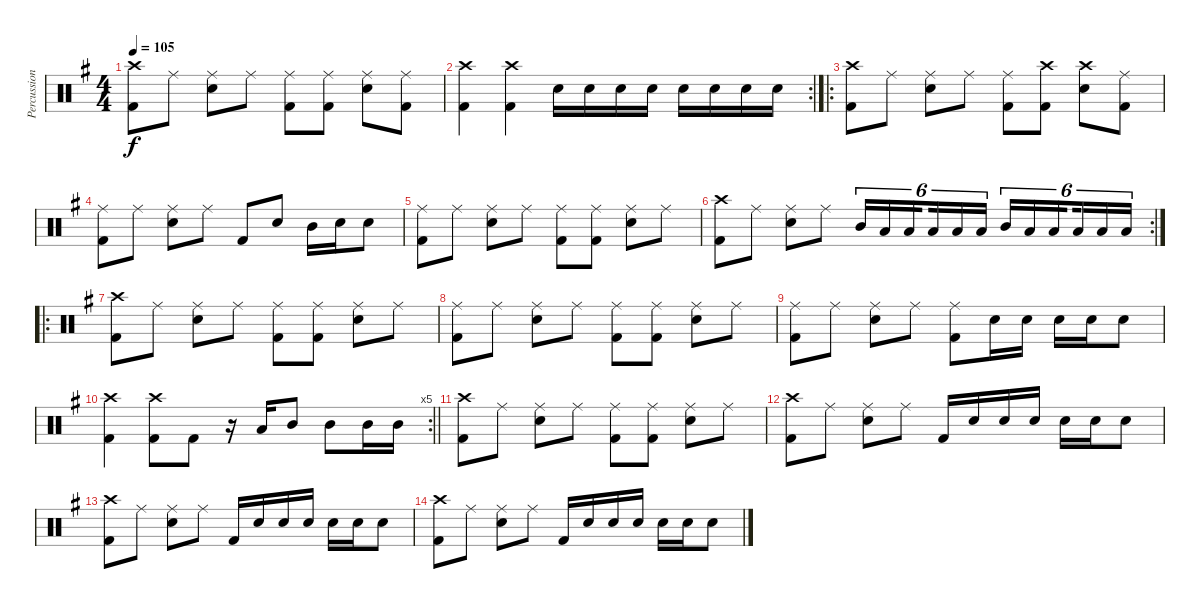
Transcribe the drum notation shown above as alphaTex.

\track ("Percussion" "Percussion") {instrument percussion}
\staff {score}
\articulation defaults
\ts (4 4)
\tempo 105
\clef neutral
\ks g
("Crash high (hit)" "Kick (hit) 2").8{dy f} "Ride (middle)".8 ("Ride (middle)" "Snare (hit) 2").8 "Ride (middle)".8 ("Ride (middle)" "Kick (hit) 2").8 ("Ride (middle)" "Kick (hit) 2").8 ("Ride (middle)" "Snare (hit) 2").8 ("Ride (middle)" "Kick (hit) 2").8 |
\rc 2
("Crash high (hit)" "Kick (hit) 2").4 ("Crash high (hit)" "Kick (hit) 2").4 "Snare (hit) 2".16 "Snare (hit) 2".16 "Snare (hit) 2".16 "Snare (hit) 2".16 "Snare (hit) 2".16 "Snare (hit) 2".16 "Snare (hit) 2".16 "Snare (hit) 2".16 |
\ro
("Crash high (hit)" "Kick (hit) 2").8 "Ride (middle)".8 ("Ride (middle)" "Snare (hit) 2").8 "Ride (middle)".8 ("Ride (middle)" "Kick (hit) 2").8 ("Crash high (hit)" "Kick (hit) 2").8 ("Crash high (hit)" "Snare (hit) 2").8 ("Ride (middle)" "Kick (hit) 2").8 |
("Ride (middle)" "Kick (hit) 2").8 "Ride (middle)".8 ("Ride (middle)" "Snare (hit) 2").8 "Ride (middle)".8 "Kick (hit) 2".8 "Snare (hit) 2".8 "Mid Tom (hit)".16 "Snare (hit) 2".16 "Snare (hit) 2".8 |
("Ride (middle)" "Kick (hit) 2").8 "Ride (middle)".8 ("Ride (middle)" "Snare (hit) 2").8 "Ride (middle)".8 ("Ride (middle)" "Kick (hit) 2").8 ("Ride (middle)" "Kick (hit) 2").8 ("Ride (middle)" "Snare (hit) 2").8 "Ride (middle)".8 |
\rc 2
("Crash high (hit)" "Kick (hit) 2").8 "Ride (middle)".8 ("Ride (middle)" "Snare (hit) 2").8 "Ride (middle)".8 "Mid Tom (hit)".16{tu (6 4)} "Low Floor Tom (hit)".16{tu (6 4)} "Low Floor Tom (hit)".16{tu (6 4) beam splitsecondary} "Low Floor Tom (hit)".16{tu (6 4)} "Low Floor Tom (hit)".16{tu (6 4)} "Low Floor Tom (hit)".16{tu (6 4)} "Mid Tom (hit)".16{tu (6 4)} "Low Floor Tom (hit)".16{tu (6 4)} "Low Floor Tom (hit)".16{tu (6 4) beam splitsecondary} "Low Floor Tom (hit)".16{tu (6 4)} "Low Floor Tom (hit)".16{tu (6 4)} "Low Floor Tom (hit)".16{tu (6 4)} |
\ro
("Crash high (hit)" "Kick (hit) 2").8 "Ride (middle)".8 ("Ride (middle)" "Snare (hit) 2").8 "Ride (middle)".8 ("Ride (middle)" "Kick (hit) 2").8 ("Ride (middle)" "Kick (hit) 2").8 ("Ride (middle)" "Snare (hit) 2").8 "Ride (middle)".8 |
("Ride (middle)" "Kick (hit) 2").8 "Ride (middle)".8 ("Ride (middle)" "Snare (hit) 2").8 "Ride (middle)".8 ("Ride (middle)" "Kick (hit) 2").8 ("Ride (middle)" "Kick (hit) 2").8 ("Ride (middle)" "Snare (hit) 2").8 "Ride (middle)".8 |
("Ride (middle)" "Kick (hit) 2").8 "Ride (middle)".8 ("Ride (middle)" "Snare (hit) 2").8 "Ride (middle)".8 ("Ride (middle)" "Kick (hit) 2").8 "Snare (hit) 2".16 "Snare (hit) 2".16 "Snare (hit) 2".16 "Snare (hit) 2".16 "Snare (hit) 2".8 |
\rc 5
\barLineRight lightlight
("Crash high (hit)" "Kick (hit) 2").4 ("Crash high (hit)" "Kick (hit) 2").8 "Kick (hit) 2".8 r.16 "Low Floor Tom (hit)".16 "Mid Tom (hit)".8 "Mid Tom (hit)".8 "Mid Tom (hit)".16 "Mid Tom (hit)".16 |
("Crash high (hit)" "Kick (hit) 2").8 "Ride (middle)".8 ("Ride (middle)" "Snare (hit) 2").8 "Ride (middle)".8 ("Ride (middle)" "Kick (hit) 2").8 ("Ride (middle)" "Kick (hit) 2").8 ("Ride (middle)" "Snare (hit) 2").8 "Ride (middle)".8 |
("Crash high (hit)" "Kick (hit) 2").8 "Ride (middle)".8 ("Ride (middle)" "Snare (hit) 2").8 "Ride (middle)".8 "Kick (hit) 2".16 "Snare (hit) 2".16 "Snare (hit) 2".16 "Snare (hit) 2".16 "Snare (hit) 2".16 "Snare (hit) 2".16 "Snare (hit) 2".8 |
("Crash high (hit)" "Kick (hit) 2").8 "Ride (middle)".8 ("Ride (middle)" "Snare (hit) 2").8 "Ride (middle)".8 "Kick (hit) 2".16 "Snare (hit) 2".16 "Snare (hit) 2".16 "Snare (hit) 2".16 "Snare (hit) 2".16 "Snare (hit) 2".16 "Snare (hit) 2".8 |
("Crash high (hit)" "Kick (hit) 2").8 "Ride (middle)".8 ("Ride (middle)" "Snare (hit) 2").8 "Ride (middle)".8 "Kick (hit) 2".16 "Snare (hit) 2".16 "Snare (hit) 2".16 "Snare (hit) 2".16 "Snare (hit) 2".16 "Snare (hit) 2".16 "Snare (hit) 2".8
